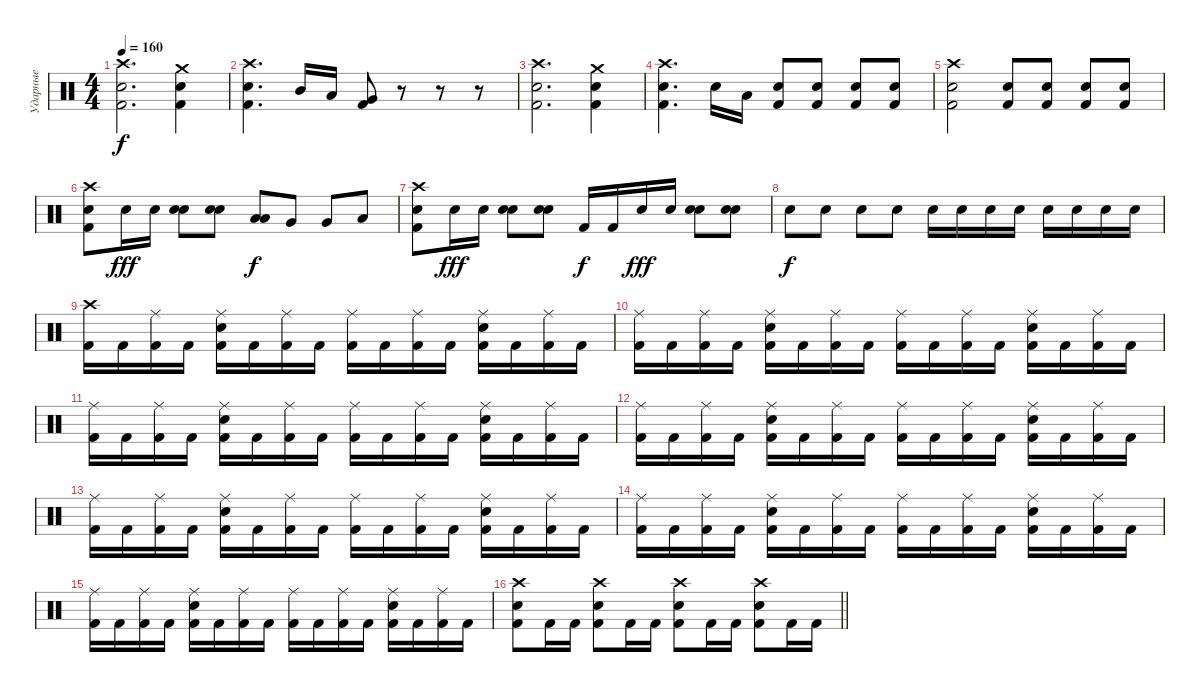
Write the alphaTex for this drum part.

\track ("Ударные" "Ударные") {instrument percussion}
\staff {score}
\articulation defaults
\ts (4 4)
\tempo 160
\clef neutral
\ks c
("Crash high (hit)" "Electric Snare (hit)" "Kick (hit) 2").2{d dy f} ("Crash medium (hit)" "Electric Snare (hit)" "Kick (hit) 2").4 |
("Crash high (hit)" "Electric Snare (hit)" "Kick (hit) 2").4{d} "Mid Tom (hit)".16 "Low Tom (hit)".16 ("Very Low Tom (hit)" "Kick (hit) 2").8 r.8 r.8 r.8 |
("Crash high (hit)" "Electric Snare (hit)" "Kick (hit) 2").2{d} ("Crash medium (hit)" "Electric Snare (hit)" "Kick (hit) 2").4 |
("Crash high (hit)" "Electric Snare (hit)" "Kick (hit) 2").4{d} "Electric Snare (hit)".16 "Low Tom (hit)".16 ("Electric Snare (hit)" "Kick (hit) 2").8 ("Electric Snare (hit)" "Kick (hit) 2").8 ("Electric Snare (hit)" "Kick (hit) 2").8 ("Electric Snare (hit)" "Kick (hit) 2").8 |
("Crash high (hit)" "Electric Snare (hit)" "Kick (hit) 2").2 ("Electric Snare (hit)" "Kick (hit) 2").8 ("Electric Snare (hit)" "Kick (hit) 2").8 ("Electric Snare (hit)" "Kick (hit) 2").8 ("Electric Snare (hit)" "Kick (hit) 2").8 |
("Crash high (hit)" "Electric Snare (hit)" "Kick (hit) 2").8 "Electric Snare (hit)".16{dy fff} "Electric Snare (hit)".16 ("Electric Snare (hit)" "Electric Snare (hit)").8 ("Electric Snare (hit)" "Electric Snare (hit)").8 ("Low Floor Tom (hit)" "Low Floor Tom (hit)").8{dy f} "Very Low Tom (hit)".8 "Very Low Tom (hit)".8 "Low Tom (hit)".8 |
("Crash high (hit)" "Electric Snare (hit)" "Kick (hit) 2").8 "Electric Snare (hit)".16{dy fff} "Electric Snare (hit)".16 ("Electric Snare (hit)" "Electric Snare (hit)").8 ("Electric Snare (hit)" "Electric Snare (hit)").8 "Kick (hit) 2".16{dy f} "Kick (hit) 2".16 "Electric Snare (hit)".16{dy fff} "Electric Snare (hit)".16 ("Electric Snare (hit)" "Electric Snare (hit)").8 ("Electric Snare (hit)" "Electric Snare (hit)").8 |
"Electric Snare (hit)".8{dy f} "Electric Snare (hit)".8 "Electric Snare (hit)".8 "Electric Snare (hit)".8 "Electric Snare (hit)".16 "Electric Snare (hit)".16 "Electric Snare (hit)".16 "Electric Snare (hit)".16 "Electric Snare (hit)".16 "Electric Snare (hit)".16 "Electric Snare (hit)".16 "Electric Snare (hit)".16 |
("Crash high (hit)" "Kick (hit) 2").16 "Kick (hit) 2".16 ("Ride (middle)" "Kick (hit) 2").16 "Kick (hit) 2".16 ("Ride (middle)" "Electric Snare (hit)" "Kick (hit) 2").16 "Kick (hit) 2".16 ("Ride (middle)" "Kick (hit) 2").16 "Kick (hit) 2".16 ("Ride (middle)" "Kick (hit) 2").16 "Kick (hit) 2".16 ("Ride (middle)" "Kick (hit) 2").16 "Kick (hit) 2".16 ("Ride (middle)" "Electric Snare (hit)" "Kick (hit) 2").16 "Kick (hit) 2".16 ("Ride (middle)" "Kick (hit) 2").16 "Kick (hit) 2".16 |
("Ride (middle)" "Kick (hit) 2").16 "Kick (hit) 2".16 ("Ride (middle)" "Kick (hit) 2").16 "Kick (hit) 2".16 ("Ride (middle)" "Electric Snare (hit)" "Kick (hit) 2").16 "Kick (hit) 2".16 ("Ride (middle)" "Kick (hit) 2").16 "Kick (hit) 2".16 ("Ride (middle)" "Kick (hit) 2").16 "Kick (hit) 2".16 ("Ride (middle)" "Kick (hit) 2").16 "Kick (hit) 2".16 ("Ride (middle)" "Electric Snare (hit)" "Kick (hit) 2").16 "Kick (hit) 2".16 ("Ride (middle)" "Kick (hit) 2").16 "Kick (hit) 2".16 |
("Ride (middle)" "Kick (hit) 2").16 "Kick (hit) 2".16 ("Ride (middle)" "Kick (hit) 2").16 "Kick (hit) 2".16 ("Ride (middle)" "Electric Snare (hit)" "Kick (hit) 2").16 "Kick (hit) 2".16 ("Ride (middle)" "Kick (hit) 2").16 "Kick (hit) 2".16 ("Ride (middle)" "Kick (hit) 2").16 "Kick (hit) 2".16 ("Ride (middle)" "Kick (hit) 2").16 "Kick (hit) 2".16 ("Ride (middle)" "Electric Snare (hit)" "Kick (hit) 2").16 "Kick (hit) 2".16 ("Ride (middle)" "Kick (hit) 2").16 "Kick (hit) 2".16 |
("Ride (middle)" "Kick (hit) 2").16 "Kick (hit) 2".16 ("Ride (middle)" "Kick (hit) 2").16 "Kick (hit) 2".16 ("Ride (middle)" "Electric Snare (hit)" "Kick (hit) 2").16 "Kick (hit) 2".16 ("Ride (middle)" "Kick (hit) 2").16 "Kick (hit) 2".16 ("Ride (middle)" "Kick (hit) 2").16 "Kick (hit) 2".16 ("Ride (middle)" "Kick (hit) 2").16 "Kick (hit) 2".16 ("Ride (middle)" "Electric Snare (hit)" "Kick (hit) 2").16 "Kick (hit) 2".16 ("Ride (middle)" "Kick (hit) 2").16 "Kick (hit) 2".16 |
("Ride (middle)" "Kick (hit) 2").16 "Kick (hit) 2".16 ("Ride (middle)" "Kick (hit) 2").16 "Kick (hit) 2".16 ("Ride (middle)" "Electric Snare (hit)" "Kick (hit) 2").16 "Kick (hit) 2".16 ("Ride (middle)" "Kick (hit) 2").16 "Kick (hit) 2".16 ("Ride (middle)" "Kick (hit) 2").16 "Kick (hit) 2".16 ("Ride (middle)" "Kick (hit) 2").16 "Kick (hit) 2".16 ("Ride (middle)" "Electric Snare (hit)" "Kick (hit) 2").16 "Kick (hit) 2".16 ("Ride (middle)" "Kick (hit) 2").16 "Kick (hit) 2".16 |
("Ride (middle)" "Kick (hit) 2").16 "Kick (hit) 2".16 ("Ride (middle)" "Kick (hit) 2").16 "Kick (hit) 2".16 ("Ride (middle)" "Electric Snare (hit)" "Kick (hit) 2").16 "Kick (hit) 2".16 ("Ride (middle)" "Kick (hit) 2").16 "Kick (hit) 2".16 ("Ride (middle)" "Kick (hit) 2").16 "Kick (hit) 2".16 ("Ride (middle)" "Kick (hit) 2").16 "Kick (hit) 2".16 ("Ride (middle)" "Electric Snare (hit)" "Kick (hit) 2").16 "Kick (hit) 2".16 ("Ride (middle)" "Kick (hit) 2").16 "Kick (hit) 2".16 |
("Ride (middle)" "Kick (hit) 2").16 "Kick (hit) 2".16 ("Ride (middle)" "Kick (hit) 2").16 "Kick (hit) 2".16 ("Ride (middle)" "Electric Snare (hit)" "Kick (hit) 2").16 "Kick (hit) 2".16 ("Ride (middle)" "Kick (hit) 2").16 "Kick (hit) 2".16 ("Ride (middle)" "Kick (hit) 2").16 "Kick (hit) 2".16 ("Ride (middle)" "Kick (hit) 2").16 "Kick (hit) 2".16 ("Ride (middle)" "Electric Snare (hit)" "Kick (hit) 2").16 "Kick (hit) 2".16 ("Ride (middle)" "Kick (hit) 2").16 "Kick (hit) 2".16 |
\barLineRight lightlight
("Crash high (hit)" "Electric Snare (hit)" "Kick (hit) 2").8 "Kick (hit) 2".16 "Kick (hit) 2".16 ("Crash high (hit)" "Electric Snare (hit)" "Kick (hit) 2").8 "Kick (hit) 2".16 "Kick (hit) 2".16 ("Crash high (hit)" "Electric Snare (hit)" "Kick (hit) 2").8 "Kick (hit) 2".16 "Kick (hit) 2".16 ("Crash high (hit)" "Electric Snare (hit)" "Kick (hit) 2").8 "Kick (hit) 2".16 "Kick (hit) 2".16
